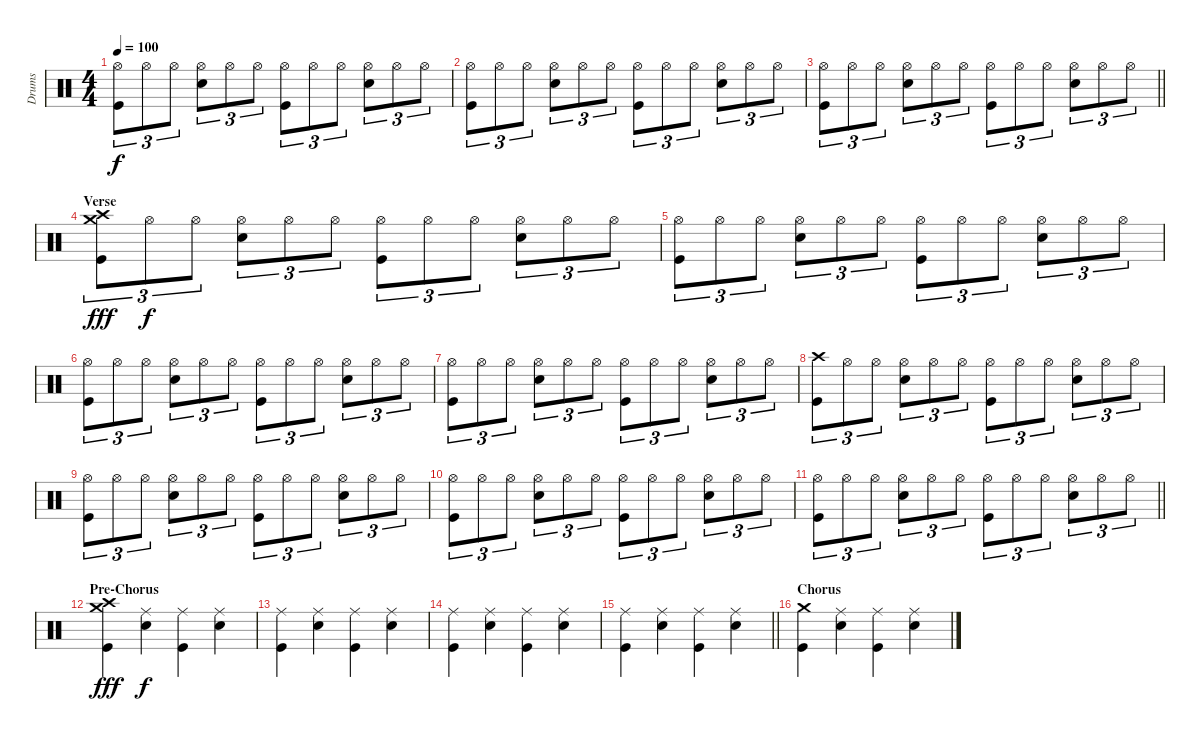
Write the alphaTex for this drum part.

\track ("Drums" "Drums") {instrument percussion}
\staff {score}
\articulation defaults
\ts (4 4)
\tempo 100
\clef neutral
\ks c
("Hi-Hat (open)" "Kick (hit)").8{tu (3 2) dy f} "Hi-Hat (open)".8{tu (3 2)} "Hi-Hat (open)".8{tu (3 2)} ("Hi-Hat (open)" "Snare (hit) 2").8{tu (3 2)} "Hi-Hat (open)".8{tu (3 2)} "Hi-Hat (open)".8{tu (3 2)} ("Hi-Hat (open)" "Kick (hit)").8{tu (3 2)} "Hi-Hat (open)".8{tu (3 2)} "Hi-Hat (open)".8{tu (3 2)} ("Hi-Hat (open)" "Snare (hit) 2").8{tu (3 2)} "Hi-Hat (open)".8{tu (3 2)} "Hi-Hat (open)".8{tu (3 2)} |
("Hi-Hat (open)" "Kick (hit)").8{tu (3 2)} "Hi-Hat (open)".8{tu (3 2)} "Hi-Hat (open)".8{tu (3 2)} ("Hi-Hat (open)" "Snare (hit) 2").8{tu (3 2)} "Hi-Hat (open)".8{tu (3 2)} "Hi-Hat (open)".8{tu (3 2)} ("Hi-Hat (open)" "Kick (hit)").8{tu (3 2)} "Hi-Hat (open)".8{tu (3 2)} "Hi-Hat (open)".8{tu (3 2)} ("Hi-Hat (open)" "Snare (hit) 2").8{tu (3 2)} "Hi-Hat (open)".8{tu (3 2)} "Hi-Hat (open)".8{tu (3 2)} |
\barLineRight lightlight
("Hi-Hat (open)" "Kick (hit)").8{tu (3 2)} "Hi-Hat (open)".8{tu (3 2)} "Hi-Hat (open)".8{tu (3 2)} ("Hi-Hat (open)" "Snare (hit) 2").8{tu (3 2)} "Hi-Hat (open)".8{tu (3 2)} "Hi-Hat (open)".8{tu (3 2)} ("Hi-Hat (open)" "Kick (hit)").8{tu (3 2)} "Hi-Hat (open)".8{tu (3 2)} "Hi-Hat (open)".8{tu (3 2)} ("Hi-Hat (open)" "Snare (hit) 2").8{tu (3 2)} "Hi-Hat (open)".8{tu (3 2)} "Hi-Hat (open)".8{tu (3 2)} |
\section ("" "Verse")
("Crash high (hit)" "Crash medium (hit)" "Kick (hit)").8{tu (3 2) dy fff} "Hi-Hat (open)".8{tu (3 2) dy f} "Hi-Hat (open)".8{tu (3 2)} ("Hi-Hat (open)" "Snare (hit) 2").8{tu (3 2)} "Hi-Hat (open)".8{tu (3 2)} "Hi-Hat (open)".8{tu (3 2)} ("Hi-Hat (open)" "Kick (hit)").8{tu (3 2)} "Hi-Hat (open)".8{tu (3 2)} "Hi-Hat (open)".8{tu (3 2)} ("Hi-Hat (open)" "Snare (hit) 2").8{tu (3 2)} "Hi-Hat (open)".8{tu (3 2)} "Hi-Hat (open)".8{tu (3 2)} |
("Hi-Hat (open)" "Kick (hit)").8{tu (3 2)} "Hi-Hat (open)".8{tu (3 2)} "Hi-Hat (open)".8{tu (3 2)} ("Hi-Hat (open)" "Snare (hit) 2").8{tu (3 2)} "Hi-Hat (open)".8{tu (3 2)} "Hi-Hat (open)".8{tu (3 2)} ("Hi-Hat (open)" "Kick (hit)").8{tu (3 2)} "Hi-Hat (open)".8{tu (3 2)} "Hi-Hat (open)".8{tu (3 2)} ("Hi-Hat (open)" "Snare (hit) 2").8{tu (3 2)} "Hi-Hat (open)".8{tu (3 2)} "Hi-Hat (open)".8{tu (3 2)} |
("Hi-Hat (open)" "Kick (hit)").8{tu (3 2)} "Hi-Hat (open)".8{tu (3 2)} "Hi-Hat (open)".8{tu (3 2)} ("Hi-Hat (open)" "Snare (hit) 2").8{tu (3 2)} "Hi-Hat (open)".8{tu (3 2)} "Hi-Hat (open)".8{tu (3 2)} ("Hi-Hat (open)" "Kick (hit)").8{tu (3 2)} "Hi-Hat (open)".8{tu (3 2)} "Hi-Hat (open)".8{tu (3 2)} ("Hi-Hat (open)" "Snare (hit) 2").8{tu (3 2)} "Hi-Hat (open)".8{tu (3 2)} "Hi-Hat (open)".8{tu (3 2)} |
("Hi-Hat (open)" "Kick (hit)").8{tu (3 2)} "Hi-Hat (open)".8{tu (3 2)} "Hi-Hat (open)".8{tu (3 2)} ("Hi-Hat (open)" "Snare (hit) 2").8{tu (3 2)} "Hi-Hat (open)".8{tu (3 2)} "Hi-Hat (open)".8{tu (3 2)} ("Hi-Hat (open)" "Kick (hit)").8{tu (3 2)} "Hi-Hat (open)".8{tu (3 2)} "Hi-Hat (open)".8{tu (3 2)} ("Hi-Hat (open)" "Snare (hit) 2").8{tu (3 2)} "Hi-Hat (open)".8{tu (3 2)} "Hi-Hat (open)".8{tu (3 2)} |
("Crash high (hit)" "Kick (hit)").8{tu (3 2)} "Hi-Hat (open)".8{tu (3 2)} "Hi-Hat (open)".8{tu (3 2)} ("Hi-Hat (open)" "Snare (hit) 2").8{tu (3 2)} "Hi-Hat (open)".8{tu (3 2)} "Hi-Hat (open)".8{tu (3 2)} ("Hi-Hat (open)" "Kick (hit)").8{tu (3 2)} "Hi-Hat (open)".8{tu (3 2)} "Hi-Hat (open)".8{tu (3 2)} ("Hi-Hat (open)" "Snare (hit) 2").8{tu (3 2)} "Hi-Hat (open)".8{tu (3 2)} "Hi-Hat (open)".8{tu (3 2)} |
("Hi-Hat (open)" "Kick (hit)").8{tu (3 2)} "Hi-Hat (open)".8{tu (3 2)} "Hi-Hat (open)".8{tu (3 2)} ("Hi-Hat (open)" "Snare (hit) 2").8{tu (3 2)} "Hi-Hat (open)".8{tu (3 2)} "Hi-Hat (open)".8{tu (3 2)} ("Hi-Hat (open)" "Kick (hit)").8{tu (3 2)} "Hi-Hat (open)".8{tu (3 2)} "Hi-Hat (open)".8{tu (3 2)} ("Hi-Hat (open)" "Snare (hit) 2").8{tu (3 2)} "Hi-Hat (open)".8{tu (3 2)} "Hi-Hat (open)".8{tu (3 2)} |
("Hi-Hat (open)" "Kick (hit)").8{tu (3 2)} "Hi-Hat (open)".8{tu (3 2)} "Hi-Hat (open)".8{tu (3 2)} ("Hi-Hat (open)" "Snare (hit) 2").8{tu (3 2)} "Hi-Hat (open)".8{tu (3 2)} "Hi-Hat (open)".8{tu (3 2)} ("Hi-Hat (open)" "Kick (hit)").8{tu (3 2)} "Hi-Hat (open)".8{tu (3 2)} "Hi-Hat (open)".8{tu (3 2)} ("Hi-Hat (open)" "Snare (hit) 2").8{tu (3 2)} "Hi-Hat (open)".8{tu (3 2)} "Hi-Hat (open)".8{tu (3 2)} |
\barLineRight lightlight
("Hi-Hat (open)" "Kick (hit)").8{tu (3 2)} "Hi-Hat (open)".8{tu (3 2)} "Hi-Hat (open)".8{tu (3 2)} ("Hi-Hat (open)" "Snare (hit) 2").8{tu (3 2)} "Hi-Hat (open)".8{tu (3 2)} "Hi-Hat (open)".8{tu (3 2)} ("Hi-Hat (open)" "Kick (hit)").8{tu (3 2)} "Hi-Hat (open)".8{tu (3 2)} "Hi-Hat (open)".8{tu (3 2)} ("Hi-Hat (open)" "Snare (hit) 2").8{tu (3 2)} "Hi-Hat (open)".8{tu (3 2)} "Hi-Hat (open)".8{tu (3 2)} |
\section ("" "Pre-Chorus")
("Crash high (hit)" "Crash medium (hit)" "Kick (hit)").4{dy fff} ("Ride (middle)" "Snare (hit) 2").4{dy f} ("Ride (middle)" "Kick (hit)").4 ("Ride (middle)" "Snare (hit) 2").4 |
("Ride (middle)" "Kick (hit)").4 ("Ride (middle)" "Snare (hit) 2").4 ("Ride (middle)" "Kick (hit)").4 ("Ride (middle)" "Snare (hit) 2").4 |
("Ride (middle)" "Kick (hit)").4 ("Ride (middle)" "Snare (hit) 2").4 ("Ride (middle)" "Kick (hit)").4 ("Ride (middle)" "Snare (hit) 2").4 |
\barLineRight lightlight
("Ride (middle)" "Kick (hit)").4 ("Ride (middle)" "Snare (hit) 2").4 ("Ride (middle)" "Kick (hit)").4 ("Ride (middle)" "Snare (hit) 2").4 |
\section ("" "Chorus")
("Crash medium (hit)" "Kick (hit)").4 ("Ride (middle)" "Snare (hit) 2").4 ("Ride (middle)" "Kick (hit)").4 ("Ride (middle)" "Snare (hit) 2").4
